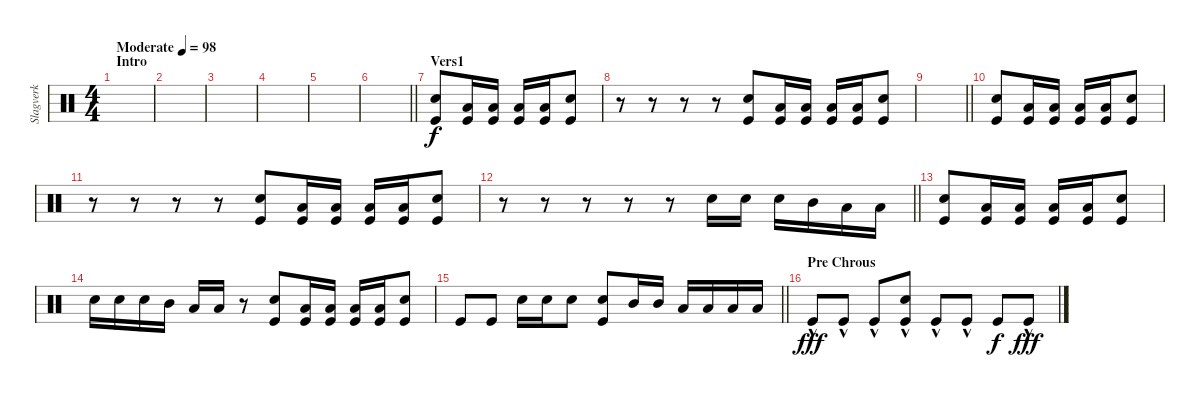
\track ("Slagverk" "Slagverk") {instrument percussion}
\staff {score}
\articulation defaults
\ts (4 4)
\section ("" "Intro")
\tempo (98 "Moderate")
\clef neutral
\ks c
|
|
|
|
|
\barLineRight lightlight
|
\section ("" "Vers1")
("Snare (hit) 2" "Kick (hit)").8 ("Low Tom (hit)" "Kick (hit)").16 ("Low Floor Tom (hit)" "Kick (hit)").16 ("Low Tom (hit)" "Kick (hit)").16 ("Low Floor Tom (hit)" "Kick (hit)").16 ("Snare (hit) 2" "Kick (hit)").8 |
r.8 r.8 r.8 r.8 ("Snare (hit) 2" "Kick (hit)").8 ("Low Tom (hit)" "Kick (hit)").16 ("Low Floor Tom (hit)" "Kick (hit)").16 ("Low Tom (hit)" "Kick (hit)").16 ("Low Floor Tom (hit)" "Kick (hit)").16 ("Snare (hit) 2" "Kick (hit)").8 |
\barLineRight lightlight
|
("Snare (hit) 2" "Kick (hit)").8 ("Low Tom (hit)" "Kick (hit)").16 ("Low Floor Tom (hit)" "Kick (hit)").16 ("Low Tom (hit)" "Kick (hit)").16 ("Low Floor Tom (hit)" "Kick (hit)").16 ("Snare (hit) 2" "Kick (hit)").8 |
r.8 r.8 r.8 r.8 ("Snare (hit) 2" "Kick (hit)").8 ("Low Tom (hit)" "Kick (hit)").16 ("Low Floor Tom (hit)" "Kick (hit)").16 ("Low Tom (hit)" "Kick (hit)").16 ("Low Floor Tom (hit)" "Kick (hit)").16 ("Snare (hit) 2" "Kick (hit)").8 |
\barLineRight lightlight
r.8 r.8 r.8 r.8 r.8 "Snare (hit) 2".16 "Snare (hit) 2".16 "Snare (hit) 2".16 "Mid Tom (hit)".16 "Low Tom (hit)".16 "Low Floor Tom (hit)".16 |
("Snare (hit) 2" "Kick (hit)").8 ("Low Tom (hit)" "Kick (hit)").16 ("Low Floor Tom (hit)" "Kick (hit)").16 ("Low Tom (hit)" "Kick (hit)").16 ("Low Floor Tom (hit)" "Kick (hit)").16 ("Snare (hit) 2" "Kick (hit)").8 |
"Snare (hit) 2".16 "Snare (hit) 2".16 "Snare (hit) 2".16 "Mid Tom (hit)".16 "Low Tom (hit)".16 "Low Floor Tom (hit)".16 r.8 ("Snare (hit) 2" "Kick (hit)").8 ("Low Tom (hit)" "Kick (hit)").16 ("Low Floor Tom (hit)" "Kick (hit)").16 ("Low Tom (hit)" "Kick (hit)").16 ("Low Floor Tom (hit)" "Kick (hit)").16 ("Snare (hit) 2" "Kick (hit)").8 |
\barLineRight lightlight "Kick (hit)".8 "Kick (hit)".8 "Snare (hit) 2".16 "Snare (hit) 2".16 "Snare (hit) 2".8
("Snare (hit) 2" "Kick (hit)").8 "Mid Tom (hit)".16 "Mid Tom (hit)".16 "Low Tom (hit)".16 "Low Tom (hit)".16 "Low Floor Tom (hit)".16 "Low Floor Tom (hit)".16 |
\section ("" "Pre Chrous")
"Kick (hit)"{hac}.8{dy fff} "Kick (hit)"{hac}.8 "Kick (hit)"{hac}.8 ("Snare (hit) 2" "Kick (hit)"{hac}).8 "Kick (hit)"{hac}.8 "Kick (hit)"{hac}.8 "Kick (hit)".8{dy f} "Kick (hit)"{hac}.8{dy fff}
